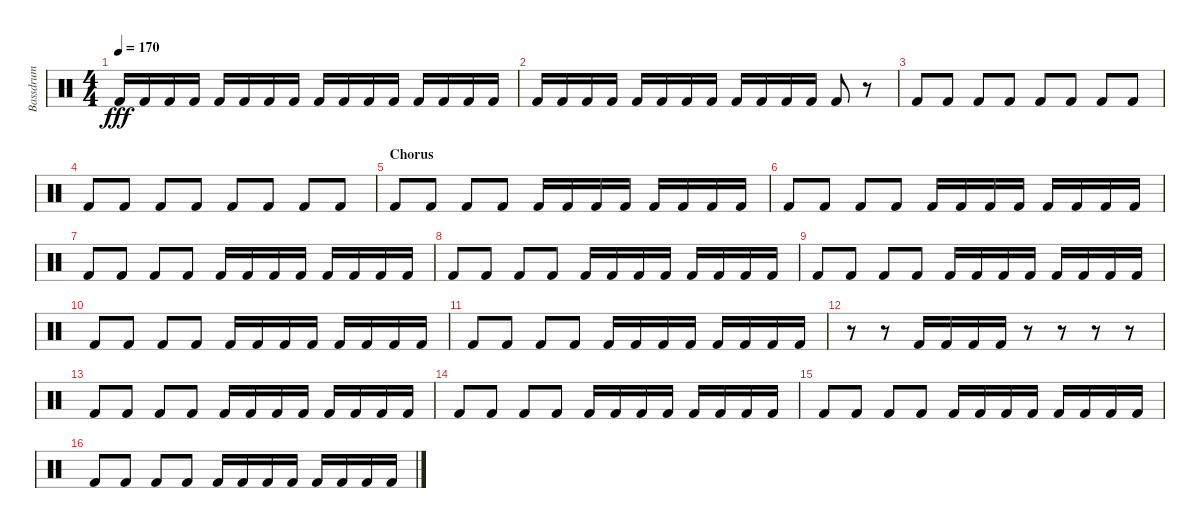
\track ("Bassdrum" "Bassdrum") {instrument percussion}
\staff {score}
\articulation defaults
\ts (4 4)
\tempo 170
\clef neutral
\ks c "Kick (hit) 2".16{dy fff} "Kick (hit) 2".16 "Kick (hit) 2".16 "Kick (hit) 2".16 "Kick (hit) 2".16 "Kick (hit) 2".16 "Kick (hit) 2".16 "Kick (hit) 2".16 "Kick (hit) 2".16 "Kick (hit) 2".16 "Kick (hit) 2".16 "Kick (hit) 2".16 "Kick (hit) 2".16 "Kick (hit) 2".16 "Kick (hit) 2".16 "Kick (hit) 2".16
|
"Kick (hit) 2".16 "Kick (hit) 2".16 "Kick (hit) 2".16 "Kick (hit) 2".16 "Kick (hit) 2".16 "Kick (hit) 2".16 "Kick (hit) 2".16 "Kick (hit) 2".16 "Kick (hit) 2".16 "Kick (hit) 2".16 "Kick (hit) 2".16 "Kick (hit) 2".16 "Kick (hit) 2".8 r.8 |
"Kick (hit) 2".8 "Kick (hit) 2".8 "Kick (hit) 2".8 "Kick (hit) 2".8 "Kick (hit) 2".8 "Kick (hit) 2".8 "Kick (hit) 2".8 "Kick (hit) 2".8 |
"Kick (hit) 2".8 "Kick (hit) 2".8 "Kick (hit) 2".8 "Kick (hit) 2".8 "Kick (hit) 2".8 "Kick (hit) 2".8 "Kick (hit) 2".8 "Kick (hit) 2".8 |
\section ("" "Chorus")
"Kick (hit) 2".8 "Kick (hit) 2".8 "Kick (hit) 2".8 "Kick (hit) 2".8 "Kick (hit) 2".16 "Kick (hit) 2".16 "Kick (hit) 2".16 "Kick (hit) 2".16 "Kick (hit) 2".16 "Kick (hit) 2".16 "Kick (hit) 2".16 "Kick (hit) 2".16 |
"Kick (hit) 2".8 "Kick (hit) 2".8 "Kick (hit) 2".8 "Kick (hit) 2".8 "Kick (hit) 2".16 "Kick (hit) 2".16 "Kick (hit) 2".16 "Kick (hit) 2".16 "Kick (hit) 2".16 "Kick (hit) 2".16 "Kick (hit) 2".16 "Kick (hit) 2".16 |
"Kick (hit) 2".8 "Kick (hit) 2".8 "Kick (hit) 2".8 "Kick (hit) 2".8 "Kick (hit) 2".16 "Kick (hit) 2".16 "Kick (hit) 2".16 "Kick (hit) 2".16 "Kick (hit) 2".16 "Kick (hit) 2".16 "Kick (hit) 2".16 "Kick (hit) 2".16 |
"Kick (hit) 2".8 "Kick (hit) 2".8 "Kick (hit) 2".8 "Kick (hit) 2".8 "Kick (hit) 2".16 "Kick (hit) 2".16 "Kick (hit) 2".16 "Kick (hit) 2".16 "Kick (hit) 2".16 "Kick (hit) 2".16 "Kick (hit) 2".16 "Kick (hit) 2".16 |
"Kick (hit) 2".8 "Kick (hit) 2".8 "Kick (hit) 2".8 "Kick (hit) 2".8 "Kick (hit) 2".16 "Kick (hit) 2".16 "Kick (hit) 2".16 "Kick (hit) 2".16 "Kick (hit) 2".16 "Kick (hit) 2".16 "Kick (hit) 2".16 "Kick (hit) 2".16 |
"Kick (hit) 2".8 "Kick (hit) 2".8 "Kick (hit) 2".8 "Kick (hit) 2".8 "Kick (hit) 2".16 "Kick (hit) 2".16 "Kick (hit) 2".16 "Kick (hit) 2".16 "Kick (hit) 2".16 "Kick (hit) 2".16 "Kick (hit) 2".16 "Kick (hit) 2".16 |
"Kick (hit) 2".8 "Kick (hit) 2".8 "Kick (hit) 2".8 "Kick (hit) 2".8 "Kick (hit) 2".16 "Kick (hit) 2".16 "Kick (hit) 2".16 "Kick (hit) 2".16 "Kick (hit) 2".16 "Kick (hit) 2".16 "Kick (hit) 2".16 "Kick (hit) 2".16 |
r.8 r.8 "Kick (hit) 2".16 "Kick (hit) 2".16 "Kick (hit) 2".16 "Kick (hit) 2".16 r.8 r.8 r.8 r.8 |
"Kick (hit) 2".8 "Kick (hit) 2".8 "Kick (hit) 2".8 "Kick (hit) 2".8 "Kick (hit) 2".16 "Kick (hit) 2".16 "Kick (hit) 2".16 "Kick (hit) 2".16 "Kick (hit) 2".16 "Kick (hit) 2".16 "Kick (hit) 2".16 "Kick (hit) 2".16 |
"Kick (hit) 2".8 "Kick (hit) 2".8 "Kick (hit) 2".8 "Kick (hit) 2".8 "Kick (hit) 2".16 "Kick (hit) 2".16 "Kick (hit) 2".16 "Kick (hit) 2".16 "Kick (hit) 2".16 "Kick (hit) 2".16 "Kick (hit) 2".16 "Kick (hit) 2".16 |
"Kick (hit) 2".8 "Kick (hit) 2".8 "Kick (hit) 2".8 "Kick (hit) 2".8 "Kick (hit) 2".16 "Kick (hit) 2".16 "Kick (hit) 2".16 "Kick (hit) 2".16 "Kick (hit) 2".16 "Kick (hit) 2".16 "Kick (hit) 2".16 "Kick (hit) 2".16 |
"Kick (hit) 2".8 "Kick (hit) 2".8 "Kick (hit) 2".8 "Kick (hit) 2".8 "Kick (hit) 2".16 "Kick (hit) 2".16 "Kick (hit) 2".16 "Kick (hit) 2".16 "Kick (hit) 2".16 "Kick (hit) 2".16 "Kick (hit) 2".16 "Kick (hit) 2".16
